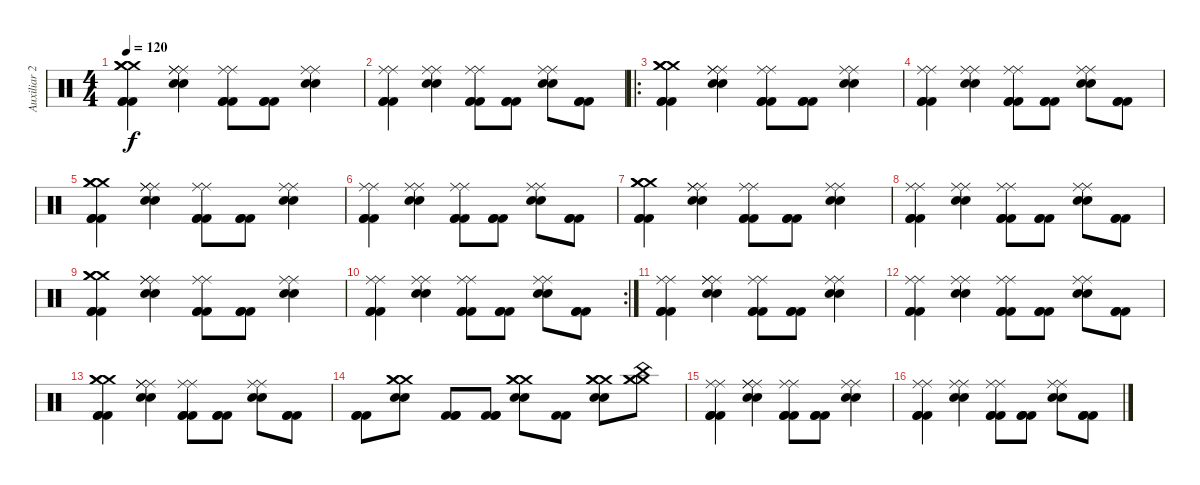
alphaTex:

\track ("Auxiliar 2" "Auxiliar 2") {instrument percussion}
\staff {score}
\articulation defaults
\ts (4 4)
\tempo 120
\clef neutral
\ks c
("Kick (hit) 2" "Kick (hit) 2" "Kick (hit) 2" "Crash medium (hit)" "Crash medium (hit)" "Crash medium (hit)").4{dy f} ("Snare (hit) 2" "Snare (hit) 2" "Ride (middle)" "Ride (middle)" "Ride (middle)").4 ("Kick (hit) 2" "Kick (hit) 2" "Kick (hit) 2" "Ride (middle)" "Ride (middle)").8 ("Kick (hit) 2" "Kick (hit) 2" "Kick (hit) 2").8 ("Snare (hit) 2" "Snare (hit) 2" "Ride (middle)" "Ride (middle)").4 |
("Kick (hit) 2" "Kick (hit) 2" "Kick (hit) 2" "Ride (middle)" "Ride (middle)").4 ("Snare (hit) 2" "Snare (hit) 2" "Ride (middle)" "Ride (middle)").4 ("Kick (hit) 2" "Kick (hit) 2" "Kick (hit) 2" "Ride (middle)" "Ride (middle)").8 ("Kick (hit) 2" "Kick (hit) 2" "Kick (hit) 2").8 ("Snare (hit) 2" "Snare (hit) 2" "Ride (middle)" "Ride (middle)").8 ("Kick (hit) 2" "Kick (hit) 2" "Kick (hit) 2").8 |
\ro
("Kick (hit) 2" "Kick (hit) 2" "Kick (hit) 2" "Crash medium (hit)" "Crash medium (hit)" "Crash medium (hit)").4 ("Snare (hit) 2" "Snare (hit) 2" "Ride (middle)" "Ride (middle)" "Ride (middle)").4 ("Kick (hit) 2" "Kick (hit) 2" "Kick (hit) 2" "Ride (middle)" "Ride (middle)").8 ("Kick (hit) 2" "Kick (hit) 2" "Kick (hit) 2").8 ("Snare (hit) 2" "Snare (hit) 2" "Ride (middle)" "Ride (middle)").4 |
("Kick (hit) 2" "Kick (hit) 2" "Kick (hit) 2" "Ride (middle)" "Ride (middle)").4 ("Snare (hit) 2" "Snare (hit) 2" "Ride (middle)" "Ride (middle)").4 ("Kick (hit) 2" "Kick (hit) 2" "Kick (hit) 2" "Ride (middle)" "Ride (middle)").8 ("Kick (hit) 2" "Kick (hit) 2" "Kick (hit) 2").8 ("Snare (hit) 2" "Snare (hit) 2" "Ride (middle)" "Ride (middle)").8 ("Kick (hit) 2" "Kick (hit) 2" "Kick (hit) 2").8 |
("Kick (hit) 2" "Kick (hit) 2" "Kick (hit) 2" "Crash medium (hit)" "Crash medium (hit)" "Crash medium (hit)").4 ("Snare (hit) 2" "Snare (hit) 2" "Ride (middle)" "Ride (middle)" "Ride (middle)").4 ("Kick (hit) 2" "Kick (hit) 2" "Kick (hit) 2" "Ride (middle)" "Ride (middle)").8 ("Kick (hit) 2" "Kick (hit) 2" "Kick (hit) 2").8 ("Snare (hit) 2" "Snare (hit) 2" "Ride (middle)" "Ride (middle)").4 |
("Kick (hit) 2" "Kick (hit) 2" "Kick (hit) 2" "Ride (middle)" "Ride (middle)").4 ("Snare (hit) 2" "Snare (hit) 2" "Ride (middle)" "Ride (middle)").4 ("Kick (hit) 2" "Kick (hit) 2" "Kick (hit) 2" "Ride (middle)" "Ride (middle)").8 ("Kick (hit) 2" "Kick (hit) 2" "Kick (hit) 2").8 ("Snare (hit) 2" "Snare (hit) 2" "Ride (middle)" "Ride (middle)").8 ("Kick (hit) 2" "Kick (hit) 2" "Kick (hit) 2").8 |
("Kick (hit) 2" "Kick (hit) 2" "Kick (hit) 2" "Crash medium (hit)" "Crash medium (hit)" "Crash medium (hit)").4 ("Snare (hit) 2" "Snare (hit) 2" "Ride (middle)" "Ride (middle)" "Ride (middle)").4 ("Kick (hit) 2" "Kick (hit) 2" "Kick (hit) 2" "Ride (middle)" "Ride (middle)").8 ("Kick (hit) 2" "Kick (hit) 2" "Kick (hit) 2").8 ("Snare (hit) 2" "Snare (hit) 2" "Ride (middle)" "Ride (middle)").4 |
("Kick (hit) 2" "Kick (hit) 2" "Kick (hit) 2" "Ride (middle)" "Ride (middle)").4 ("Snare (hit) 2" "Snare (hit) 2" "Ride (middle)" "Ride (middle)").4 ("Kick (hit) 2" "Kick (hit) 2" "Kick (hit) 2" "Ride (middle)" "Ride (middle)").8 ("Kick (hit) 2" "Kick (hit) 2" "Kick (hit) 2").8 ("Snare (hit) 2" "Snare (hit) 2" "Ride (middle)" "Ride (middle)").8 ("Kick (hit) 2" "Kick (hit) 2" "Kick (hit) 2").8 |
("Kick (hit) 2" "Kick (hit) 2" "Kick (hit) 2" "Crash medium (hit)" "Crash medium (hit)" "Crash medium (hit)").4 ("Snare (hit) 2" "Snare (hit) 2" "Ride (middle)" "Ride (middle)" "Ride (middle)").4 ("Kick (hit) 2" "Kick (hit) 2" "Kick (hit) 2" "Ride (middle)" "Ride (middle)").8 ("Kick (hit) 2" "Kick (hit) 2" "Kick (hit) 2").8 ("Snare (hit) 2" "Snare (hit) 2" "Ride (middle)" "Ride (middle)").4 |
\rc 2
("Kick (hit) 2" "Kick (hit) 2" "Kick (hit) 2" "Ride (middle)" "Ride (middle)").4 ("Snare (hit) 2" "Snare (hit) 2" "Ride (middle)" "Ride (middle)").4 ("Kick (hit) 2" "Kick (hit) 2" "Kick (hit) 2" "Ride (middle)" "Ride (middle)").8 ("Kick (hit) 2" "Kick (hit) 2" "Kick (hit) 2").8 ("Snare (hit) 2" "Snare (hit) 2" "Ride (middle)" "Ride (middle)").8 ("Kick (hit) 2" "Kick (hit) 2" "Kick (hit) 2").8 |
("Kick (hit) 2" "Kick (hit) 2" "Kick (hit) 2" "Ride (middle)" "Ride (middle)").4 ("Snare (hit) 2" "Snare (hit) 2" "Ride (middle)" "Ride (middle)" "Ride (middle)").4 ("Kick (hit) 2" "Kick (hit) 2" "Kick (hit) 2" "Ride (middle)" "Ride (middle)").8 ("Kick (hit) 2" "Kick (hit) 2" "Kick (hit) 2").8 ("Snare (hit) 2" "Snare (hit) 2" "Ride (middle)" "Ride (middle)").4 |
("Kick (hit) 2" "Kick (hit) 2" "Kick (hit) 2" "Ride (middle)" "Ride (middle)").4 ("Snare (hit) 2" "Snare (hit) 2" "Ride (middle)" "Ride (middle)").4 ("Kick (hit) 2" "Kick (hit) 2" "Kick (hit) 2" "Ride (middle)" "Ride (middle)").8 ("Kick (hit) 2" "Kick (hit) 2" "Kick (hit) 2").8 ("Snare (hit) 2" "Snare (hit) 2" "Ride (middle)" "Ride (middle)").8 ("Kick (hit) 2" "Kick (hit) 2" "Kick (hit) 2").8 |
("Kick (hit) 2" "Kick (hit) 2" "Kick (hit) 2" "Crash medium (hit)" "Crash medium (hit)" "Crash medium (hit)").4 ("Snare (hit) 2" "Snare (hit) 2" "Ride (middle)" "Ride (middle)" "Ride (middle)").4 ("Kick (hit) 2" "Kick (hit) 2" "Kick (hit) 2" "Ride (middle)" "Ride (middle)").8 ("Kick (hit) 2" "Kick (hit) 2" "Kick (hit) 2").8 ("Snare (hit) 2" "Snare (hit) 2" "Ride (middle)" "Ride (middle)").8 ("Kick (hit) 2" "Kick (hit) 2" "Kick (hit) 2").8 |
("Kick (hit) 2" "Kick (hit) 2" "Kick (hit) 2").8 ("Snare (hit) 2" "Snare (hit) 2" "Crash medium (hit)" "Crash medium (hit)" "Crash medium (hit)").8 ("Kick (hit) 2" "Kick (hit) 2" "Kick (hit) 2").8 ("Kick (hit) 2" "Kick (hit) 2" "Kick (hit) 2").8 ("Snare (hit) 2" "Snare (hit) 2" "Crash medium (hit)" "Crash medium (hit)" "Crash medium (hit)").8 ("Kick (hit) 2" "Kick (hit) 2").8 ("Snare (hit) 2" "Snare (hit) 2" "Crash medium (hit)" "Crash medium (hit)" "Crash medium (hit)").8 ("Crash medium (hit)" "Crash medium (hit)" "Crash medium (hit)" "China (hit)").8 |
("Kick (hit) 2" "Kick (hit) 2" "Kick (hit) 2" "Ride (middle)" "Ride (middle)").4 ("Snare (hit) 2" "Snare (hit) 2" "Ride (middle)" "Ride (middle)" "Ride (middle)").4 ("Kick (hit) 2" "Kick (hit) 2" "Kick (hit) 2" "Ride (middle)" "Ride (middle)").8 ("Kick (hit) 2" "Kick (hit) 2" "Kick (hit) 2").8 ("Snare (hit) 2" "Snare (hit) 2" "Ride (middle)" "Ride (middle)").4 |
("Kick (hit) 2" "Kick (hit) 2" "Kick (hit) 2" "Ride (middle)" "Ride (middle)").4 ("Snare (hit) 2" "Snare (hit) 2" "Ride (middle)" "Ride (middle)").4 ("Kick (hit) 2" "Kick (hit) 2" "Kick (hit) 2" "Ride (middle)" "Ride (middle)").8 ("Kick (hit) 2" "Kick (hit) 2" "Kick (hit) 2").8 ("Snare (hit) 2" "Snare (hit) 2" "Ride (middle)" "Ride (middle)").8 ("Kick (hit) 2" "Kick (hit) 2" "Kick (hit) 2").8
